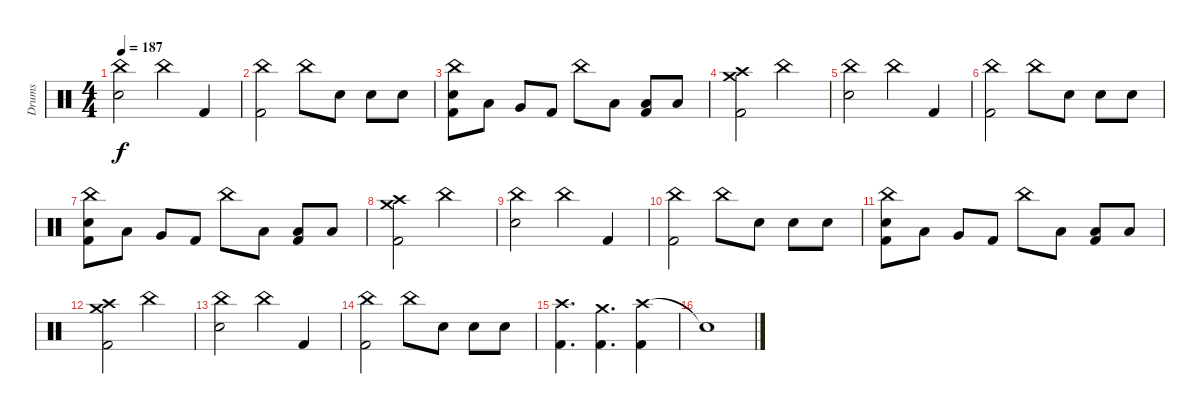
\track ("Drums" "Drums") {instrument percussion}
\staff {score}
\articulation defaults
\ts (4 4)
\tempo 187
\clef neutral
\ks c
("China (hit)" "Electric Snare (hit)").2{dy f} "China (hit)".4 "Kick (hit) 2".4 |
("China (hit)" "Kick (hit) 2").2 "China (hit)".8 "Electric Snare (hit)".8 "Electric Snare (hit)".8 "Electric Snare (hit)".8 |
("China (hit)" "Electric Snare (hit)" "Kick (hit) 2").8 "Low Tom (hit)".8 "Very Low Tom (hit)".8 "Kick (hit) 2".8 "China (hit)".8 "Low Floor Tom (hit)".8 ("Low Floor Tom (hit)" "Kick (hit) 2").8 "Low Floor Tom (hit)".8 |
("Crash medium (hit)" "Crash high (hit)" "Kick (hit) 2").2 "China (hit)".2 |
("China (hit)" "Electric Snare (hit)").2 "China (hit)".4 "Kick (hit) 2".4 |
("China (hit)" "Kick (hit) 2").2 "China (hit)".8 "Electric Snare (hit)".8 "Electric Snare (hit)".8 "Electric Snare (hit)".8 |
("China (hit)" "Electric Snare (hit)" "Kick (hit) 2").8 "Low Tom (hit)".8 "Very Low Tom (hit)".8 "Kick (hit) 2".8 "China (hit)".8 "Low Floor Tom (hit)".8 ("Low Floor Tom (hit)" "Kick (hit) 2").8 "Low Floor Tom (hit)".8 |
("Crash medium (hit)" "Crash high (hit)" "Kick (hit) 2").2 "China (hit)".2 |
("China (hit)" "Electric Snare (hit)").2 "China (hit)".4 "Kick (hit) 2".4 |
("China (hit)" "Kick (hit) 2").2 "China (hit)".8 "Electric Snare (hit)".8 "Electric Snare (hit)".8 "Electric Snare (hit)".8 |
("China (hit)" "Electric Snare (hit)" "Kick (hit) 2").8 "Low Tom (hit)".8 "Very Low Tom (hit)".8 "Kick (hit) 2".8 "China (hit)".8 "Low Floor Tom (hit)".8 ("Low Floor Tom (hit)" "Kick (hit) 2").8 "Low Floor Tom (hit)".8 |
("Crash medium (hit)" "Crash high (hit)" "Kick (hit) 2").2 "China (hit)".2 |
("China (hit)" "Electric Snare (hit)").2 "China (hit)".4 "Kick (hit) 2".4 |
("China (hit)" "Kick (hit) 2").2 "China (hit)".8 "Electric Snare (hit)".8 "Electric Snare (hit)".8 "Electric Snare (hit)".8 |
("Crash high (hit)" "Kick (hit) 2").4{d} ("Crash medium (hit)" "Kick (hit) 2").4{d} ("Crash high (hit)" "Kick (hit) 2").4 |
"Snare (hit)"{t}.1
